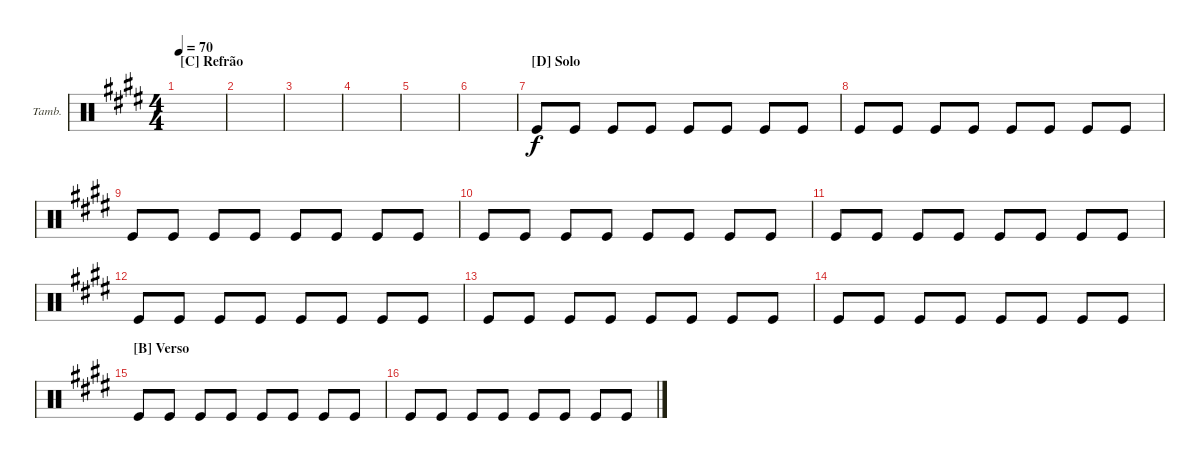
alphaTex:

\defaultSystemsLayout 4
\bracketExtendMode groupsimilarinstruments
\firstSystemTrackNameOrientation horizontal
\otherSystemsTrackNameOrientation horizontal
\track ("Tambourine" "Tamb.") {instrument percussion}
\staff {score}
\articulation defaults
\ts (4 4)
\section ("C" "Refrão")
\tempo 70
\clef neutral
\scale
0.5
\ks e
|
\scale
0.5 |
\scale
0.5 |
\scale
0.5 |
\scale
0.5 |
\scale
0.5 |
\section ("D" "Solo")
\scale
0.5 "Kick (hit)".8 "Kick (hit)".8 "Kick (hit)".8 "Kick (hit)".8 "Kick (hit)".8 "Kick (hit)".8 "Kick (hit)".8 "Kick (hit)".8 |
\scale
0.5 "Kick (hit)".8 "Kick (hit)".8 "Kick (hit)".8 "Kick (hit)".8 "Kick (hit)".8 "Kick (hit)".8 "Kick (hit)".8 "Kick (hit)".8 |
\scale
0.5 "Kick (hit)".8 "Kick (hit)".8 "Kick (hit)".8 "Kick (hit)".8 "Kick (hit)".8 "Kick (hit)".8 "Kick (hit)".8 "Kick (hit)".8 |
\scale
0.5 "Kick (hit)".8 "Kick (hit)".8 "Kick (hit)".8 "Kick (hit)".8 "Kick (hit)".8 "Kick (hit)".8 "Kick (hit)".8 "Kick (hit)".8 |
\scale
0.5 "Kick (hit)".8 "Kick (hit)".8 "Kick (hit)".8 "Kick (hit)".8 "Kick (hit)".8 "Kick (hit)".8 "Kick (hit)".8 "Kick (hit)".8 |
\scale
0.5 "Kick (hit)".8 "Kick (hit)".8 "Kick (hit)".8 "Kick (hit)".8 "Kick (hit)".8 "Kick (hit)".8 "Kick (hit)".8 "Kick (hit)".8 |
\scale
0.5 "Kick (hit)".8 "Kick (hit)".8 "Kick (hit)".8 "Kick (hit)".8 "Kick (hit)".8 "Kick (hit)".8 "Kick (hit)".8 "Kick (hit)".8 |
\scale
0.5 "Kick (hit)".8 "Kick (hit)".8 "Kick (hit)".8 "Kick (hit)".8 "Kick (hit)".8 "Kick (hit)".8 "Kick (hit)".8 "Kick (hit)".8 |
\section ("B" "Verso")
\scale
0.5 "Kick (hit)".8 "Kick (hit)".8 "Kick (hit)".8 "Kick (hit)".8 "Kick (hit)".8 "Kick (hit)".8 "Kick (hit)".8 "Kick (hit)".8 |
\scale
0.5 "Kick (hit)".8 "Kick (hit)".8 "Kick (hit)".8 "Kick (hit)".8 "Kick (hit)".8 "Kick (hit)".8 "Kick (hit)".8 "Kick (hit)".8
